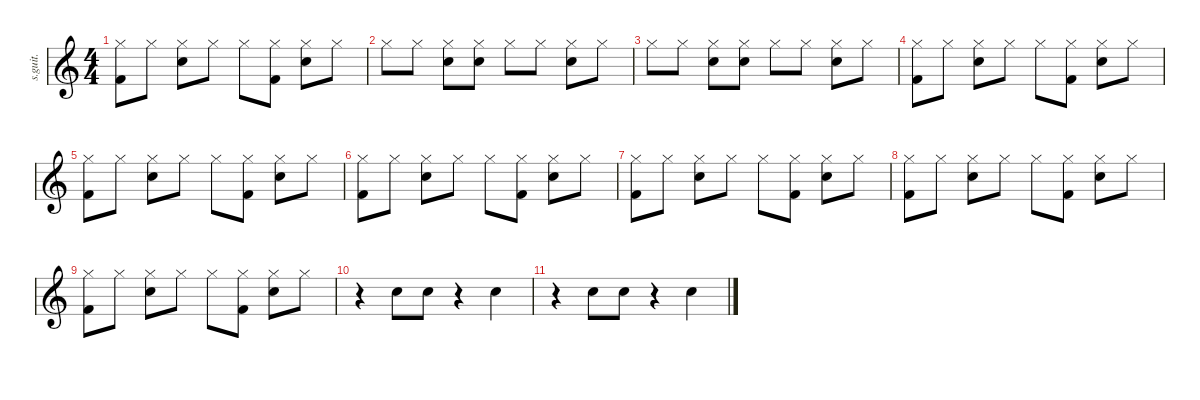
\defaultSystemsLayout 4
\hideDynamics
\bracketExtendMode nobrackets
\track ("Drums (Russel Hobbs)" "s.guit.") {instrument percussion}
\staff {score}
\articulation defaults
\ts (4 4)
\tempo (139 hide)
\clef g2
\ks c
("Hi-Hat (closed)" "Kick (hit) 2").8{lyrics (0 "") lyrics (1 "") lyrics (2 "") lyrics (3 "") lyrics (4 "") dy f} "Hi-Hat (closed)".8{lyrics (0 "") lyrics (1 "") lyrics (2 "") lyrics (3 "") lyrics (4 "")} ("Hi-Hat (closed)" "Snare (hit) 2").8{lyrics (0 "") lyrics (1 "") lyrics (2 "") lyrics (3 "") lyrics (4 "")} "Hi-Hat (closed)".8{lyrics (0 "") lyrics (1 "") lyrics (2 "") lyrics (3 "") lyrics (4 "")} "Hi-Hat (closed)".8{lyrics (0 "") lyrics (1 "") lyrics (2 "") lyrics (3 "") lyrics (4 "")} ("Hi-Hat (closed)" "Kick (hit) 2").8{lyrics (0 "") lyrics (1 "") lyrics (2 "") lyrics (3 "") lyrics (4 "")} ("Hi-Hat (closed)" "Snare (hit) 2").8{lyrics (0 "") lyrics (1 "") lyrics (2 "") lyrics (3 "") lyrics (4 "")} "Hi-Hat (closed)".8{lyrics (0 "") lyrics (1 "") lyrics (2 "") lyrics (3 "") lyrics (4 "")} |
"Hi-Hat (closed)".8{lyrics (0 "") lyrics (1 "") lyrics (2 "") lyrics (3 "") lyrics (4 "")} "Hi-Hat (closed)".8{lyrics (0 "") lyrics (1 "") lyrics (2 "") lyrics (3 "") lyrics (4 "")} ("Hi-Hat (closed)" "Snare (hit) 2").8{lyrics (0 "") lyrics (1 "") lyrics (2 "") lyrics (3 "") lyrics (4 "")} ("Hi-Hat (closed)" "Snare (hit) 2").8{lyrics (0 "") lyrics (1 "") lyrics (2 "") lyrics (3 "") lyrics (4 "")} "Hi-Hat (closed)".8{lyrics (0 "") lyrics (1 "") lyrics (2 "") lyrics (3 "") lyrics (4 "")} "Hi-Hat (closed)".8{lyrics (0 "") lyrics (1 "") lyrics (2 "") lyrics (3 "") lyrics (4 "")} ("Hi-Hat (closed)" "Snare (hit) 2").8{lyrics (0 "") lyrics (1 "") lyrics (2 "") lyrics (3 "") lyrics (4 "")} "Hi-Hat (closed)".8{lyrics (0 "") lyrics (1 "") lyrics (2 "") lyrics (3 "") lyrics (4 "")} |
"Hi-Hat (closed)".8{lyrics (0 "") lyrics (1 "") lyrics (2 "") lyrics (3 "") lyrics (4 "")} "Hi-Hat (closed)".8{lyrics (0 "") lyrics (1 "") lyrics (2 "") lyrics (3 "") lyrics (4 "")} ("Hi-Hat (closed)" "Snare (hit) 2").8{lyrics (0 "") lyrics (1 "") lyrics (2 "") lyrics (3 "") lyrics (4 "")} ("Hi-Hat (closed)" "Snare (hit) 2").8{lyrics (0 "") lyrics (1 "") lyrics (2 "") lyrics (3 "") lyrics (4 "")} "Hi-Hat (closed)".8{lyrics (0 "") lyrics (1 "") lyrics (2 "") lyrics (3 "") lyrics (4 "")} "Hi-Hat (closed)".8{lyrics (0 "") lyrics (1 "") lyrics (2 "") lyrics (3 "") lyrics (4 "")} ("Hi-Hat (closed)" "Snare (hit) 2").8{lyrics (0 "") lyrics (1 "") lyrics (2 "") lyrics (3 "") lyrics (4 "")} "Hi-Hat (closed)".8{lyrics (0 "") lyrics (1 "") lyrics (2 "") lyrics (3 "") lyrics (4 "")} |
("Hi-Hat (closed)" "Kick (hit) 2").8{lyrics (0 "") lyrics (1 "") lyrics (2 "") lyrics (3 "") lyrics (4 "")} "Hi-Hat (closed)".8{lyrics (0 "") lyrics (1 "") lyrics (2 "") lyrics (3 "") lyrics (4 "")} ("Hi-Hat (closed)" "Snare (hit) 2").8{lyrics (0 "") lyrics (1 "") lyrics (2 "") lyrics (3 "") lyrics (4 "")} "Hi-Hat (closed)".8{lyrics (0 "") lyrics (1 "") lyrics (2 "") lyrics (3 "") lyrics (4 "")} "Hi-Hat (closed)".8{lyrics (0 "") lyrics (1 "") lyrics (2 "") lyrics (3 "") lyrics (4 "")} ("Hi-Hat (closed)" "Kick (hit) 2").8{lyrics (0 "") lyrics (1 "") lyrics (2 "") lyrics (3 "") lyrics (4 "")} ("Hi-Hat (closed)" "Snare (hit) 2").8{lyrics (0 "") lyrics (1 "") lyrics (2 "") lyrics (3 "") lyrics (4 "")} "Hi-Hat (closed)".8{lyrics (0 "") lyrics (1 "") lyrics (2 "") lyrics (3 "") lyrics (4 "")} |
("Hi-Hat (closed)" "Kick (hit) 2").8{lyrics (0 "") lyrics (1 "") lyrics (2 "") lyrics (3 "") lyrics (4 "")} "Hi-Hat (closed)".8{lyrics (0 "") lyrics (1 "") lyrics (2 "") lyrics (3 "") lyrics (4 "")} ("Hi-Hat (closed)" "Snare (hit) 2").8{lyrics (0 "") lyrics (1 "") lyrics (2 "") lyrics (3 "") lyrics (4 "")} "Hi-Hat (closed)".8{lyrics (0 "") lyrics (1 "") lyrics (2 "") lyrics (3 "") lyrics (4 "")} "Hi-Hat (closed)".8{lyrics (0 "") lyrics (1 "") lyrics (2 "") lyrics (3 "") lyrics (4 "")} ("Hi-Hat (closed)" "Kick (hit) 2").8{lyrics (0 "") lyrics (1 "") lyrics (2 "") lyrics (3 "") lyrics (4 "")} ("Hi-Hat (closed)" "Snare (hit) 2").8{lyrics (0 "") lyrics (1 "") lyrics (2 "") lyrics (3 "") lyrics (4 "")} "Hi-Hat (closed)".8{lyrics (0 "") lyrics (1 "") lyrics (2 "") lyrics (3 "") lyrics (4 "")} |
("Hi-Hat (closed)" "Kick (hit) 2").8{lyrics (0 "") lyrics (1 "") lyrics (2 "") lyrics (3 "") lyrics (4 "")} "Hi-Hat (closed)".8{lyrics (0 "") lyrics (1 "") lyrics (2 "") lyrics (3 "") lyrics (4 "")} ("Hi-Hat (closed)" "Snare (hit) 2").8{lyrics (0 "") lyrics (1 "") lyrics (2 "") lyrics (3 "") lyrics (4 "")} "Hi-Hat (closed)".8{lyrics (0 "") lyrics (1 "") lyrics (2 "") lyrics (3 "") lyrics (4 "")} "Hi-Hat (closed)".8{lyrics (0 "") lyrics (1 "") lyrics (2 "") lyrics (3 "") lyrics (4 "")} ("Hi-Hat (closed)" "Kick (hit) 2").8{lyrics (0 "") lyrics (1 "") lyrics (2 "") lyrics (3 "") lyrics (4 "")} ("Hi-Hat (closed)" "Snare (hit) 2").8{lyrics (0 "") lyrics (1 "") lyrics (2 "") lyrics (3 "") lyrics (4 "")} "Hi-Hat (closed)".8{lyrics (0 "") lyrics (1 "") lyrics (2 "") lyrics (3 "") lyrics (4 "")} |
("Hi-Hat (closed)" "Kick (hit) 2").8{lyrics (0 "") lyrics (1 "") lyrics (2 "") lyrics (3 "") lyrics (4 "")} "Hi-Hat (closed)".8{lyrics (0 "") lyrics (1 "") lyrics (2 "") lyrics (3 "") lyrics (4 "")} ("Hi-Hat (closed)" "Snare (hit) 2").8{lyrics (0 "") lyrics (1 "") lyrics (2 "") lyrics (3 "") lyrics (4 "")} "Hi-Hat (closed)".8{lyrics (0 "") lyrics (1 "") lyrics (2 "") lyrics (3 "") lyrics (4 "")} "Hi-Hat (closed)".8{lyrics (0 "") lyrics (1 "") lyrics (2 "") lyrics (3 "") lyrics (4 "")} ("Hi-Hat (closed)" "Kick (hit) 2").8{lyrics (0 "") lyrics (1 "") lyrics (2 "") lyrics (3 "") lyrics (4 "")} ("Hi-Hat (closed)" "Snare (hit) 2").8{lyrics (0 "") lyrics (1 "") lyrics (2 "") lyrics (3 "") lyrics (4 "")} "Hi-Hat (closed)".8{lyrics (0 "") lyrics (1 "") lyrics (2 "") lyrics (3 "") lyrics (4 "")} |
("Hi-Hat (closed)" "Kick (hit) 2").8{lyrics (0 "") lyrics (1 "") lyrics (2 "") lyrics (3 "") lyrics (4 "")} "Hi-Hat (closed)".8{lyrics (0 "") lyrics (1 "") lyrics (2 "") lyrics (3 "") lyrics (4 "")} ("Hi-Hat (closed)" "Snare (hit) 2").8{lyrics (0 "") lyrics (1 "") lyrics (2 "") lyrics (3 "") lyrics (4 "")} "Hi-Hat (closed)".8{lyrics (0 "") lyrics (1 "") lyrics (2 "") lyrics (3 "") lyrics (4 "")} "Hi-Hat (closed)".8{lyrics (0 "") lyrics (1 "") lyrics (2 "") lyrics (3 "") lyrics (4 "")} ("Hi-Hat (closed)" "Kick (hit) 2").8{lyrics (0 "") lyrics (1 "") lyrics (2 "") lyrics (3 "") lyrics (4 "")} ("Hi-Hat (closed)" "Snare (hit) 2").8{lyrics (0 "") lyrics (1 "") lyrics (2 "") lyrics (3 "") lyrics (4 "")} "Hi-Hat (closed)".8{lyrics (0 "") lyrics (1 "") lyrics (2 "") lyrics (3 "") lyrics (4 "")} |
("Hi-Hat (closed)" "Kick (hit) 2").8{lyrics (0 "") lyrics (1 "") lyrics (2 "") lyrics (3 "") lyrics (4 "")} "Hi-Hat (closed)".8{lyrics (0 "") lyrics (1 "") lyrics (2 "") lyrics (3 "") lyrics (4 "")} ("Hi-Hat (closed)" "Snare (hit) 2").8{lyrics (0 "") lyrics (1 "") lyrics (2 "") lyrics (3 "") lyrics (4 "")} "Hi-Hat (closed)".8{lyrics (0 "") lyrics (1 "") lyrics (2 "") lyrics (3 "") lyrics (4 "")} "Hi-Hat (closed)".8{lyrics (0 "") lyrics (1 "") lyrics (2 "") lyrics (3 "") lyrics (4 "")} ("Hi-Hat (closed)" "Kick (hit) 2").8{lyrics (0 "") lyrics (1 "") lyrics (2 "") lyrics (3 "") lyrics (4 "")} ("Hi-Hat (closed)" "Snare (hit) 2").8{lyrics (0 "") lyrics (1 "") lyrics (2 "") lyrics (3 "") lyrics (4 "")} "Hi-Hat (closed)".8{lyrics (0 "") lyrics (1 "") lyrics (2 "") lyrics (3 "") lyrics (4 "")} |
r.4 "Snare (hit) 2".8{lyrics (0 "") lyrics (1 "") lyrics (2 "") lyrics (3 "") lyrics (4 "")} "Snare (hit) 2".8{lyrics (0 "") lyrics (1 "") lyrics (2 "") lyrics (3 "") lyrics (4 "")} r.4 "Snare (hit) 2".4{lyrics (0 "") lyrics (1 "") lyrics (2 "") lyrics (3 "") lyrics (4 "")} |
r.4 "Snare (hit) 2".8{lyrics (0 "") lyrics (1 "") lyrics (2 "") lyrics (3 "") lyrics (4 "")} "Snare (hit) 2".8{lyrics (0 "") lyrics (1 "") lyrics (2 "") lyrics (3 "") lyrics (4 "")} r.4 "Snare (hit) 2".4{lyrics (0 "") lyrics (1 "") lyrics (2 "") lyrics (3 "") lyrics (4 "")}
